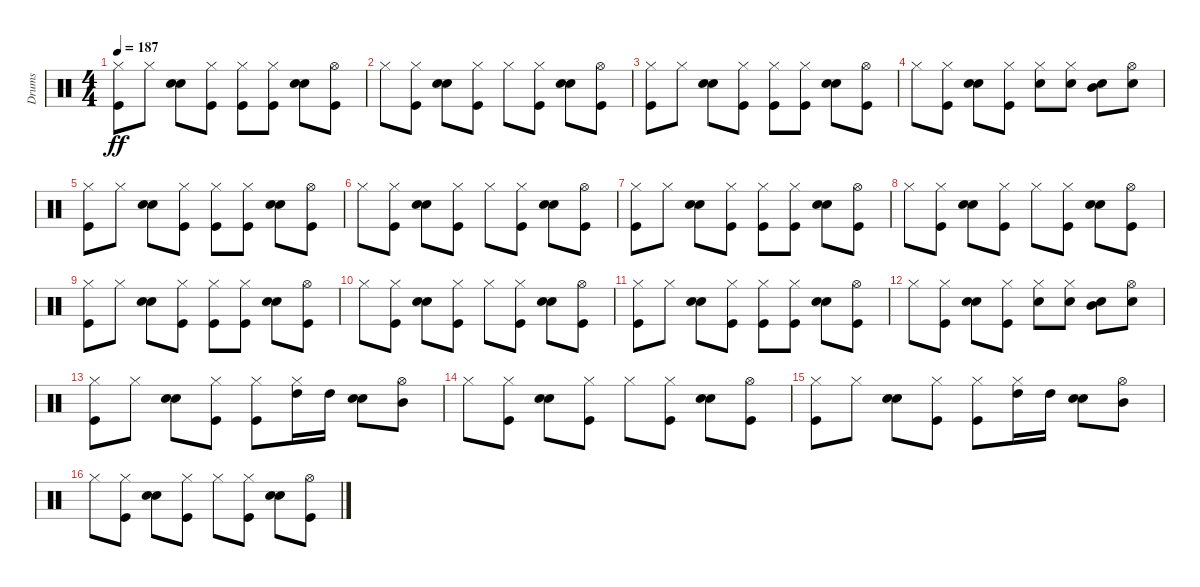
\track ("Drums" "Drums") {instrument percussion}
\staff {score}
\articulation defaults
\ts (4 4)
\tempo 187
\clef neutral
\ks c
("Kick (hit)" "Hi-Hat (closed)").8{dy ff} "Hi-Hat (closed)".8 ("Snare (hit) 2" "Electric Snare (hit)").8 ("Kick (hit)" "Hi-Hat (closed)").8 ("Kick (hit)" "Hi-Hat (closed)").8 ("Kick (hit)" "Hi-Hat (closed)").8 ("Snare (hit) 2" "Electric Snare (hit)").8 ("Kick (hit)" "Hi-Hat (open)").8 |
"Hi-Hat (closed)".8 ("Kick (hit)" "Hi-Hat (closed)").8 ("Snare (hit) 2" "Electric Snare (hit)").8 ("Kick (hit)" "Hi-Hat (closed)").8 "Hi-Hat (closed)".8 ("Kick (hit)" "Hi-Hat (closed)").8 ("Snare (hit) 2" "Electric Snare (hit)").8 ("Kick (hit)" "Hi-Hat (open)").8 |
("Kick (hit)" "Hi-Hat (closed)").8 "Hi-Hat (closed)".8 ("Snare (hit) 2" "Electric Snare (hit)").8 ("Kick (hit)" "Hi-Hat (closed)").8 ("Kick (hit)" "Hi-Hat (closed)").8 ("Kick (hit)" "Hi-Hat (closed)").8 ("Snare (hit) 2" "Electric Snare (hit)").8 ("Kick (hit)" "Hi-Hat (open)").8 |
"Hi-Hat (closed)".8 ("Kick (hit)" "Hi-Hat (closed)").8 ("Snare (hit) 2" "Electric Snare (hit)").8 ("Kick (hit)" "Hi-Hat (closed)").8 ("Electric Snare (hit)" "Hi-Hat (closed)").8 ("Electric Snare (hit)" "Hi-Hat (closed)").8 ("Snare (hit) 2" "Mid Tom (hit)").8 ("Electric Snare (hit)" "Hi-Hat (open)").8 |
("Kick (hit)" "Hi-Hat (closed)").8 "Hi-Hat (closed)".8 ("Snare (hit) 2" "Electric Snare (hit)").8 ("Kick (hit)" "Hi-Hat (closed)").8 ("Kick (hit)" "Hi-Hat (closed)").8 ("Kick (hit)" "Hi-Hat (closed)").8 ("Snare (hit) 2" "Electric Snare (hit)").8 ("Kick (hit)" "Hi-Hat (open)").8 |
"Hi-Hat (closed)".8 ("Kick (hit)" "Hi-Hat (closed)").8 ("Snare (hit) 2" "Electric Snare (hit)").8 ("Kick (hit)" "Hi-Hat (closed)").8 "Hi-Hat (closed)".8 ("Kick (hit)" "Hi-Hat (closed)").8 ("Snare (hit) 2" "Electric Snare (hit)").8 ("Kick (hit)" "Hi-Hat (open)").8 |
("Kick (hit)" "Hi-Hat (closed)").8 "Hi-Hat (closed)".8 ("Snare (hit) 2" "Electric Snare (hit)").8 ("Kick (hit)" "Hi-Hat (closed)").8 ("Kick (hit)" "Hi-Hat (closed)").8 ("Kick (hit)" "Hi-Hat (closed)").8 ("Snare (hit) 2" "Electric Snare (hit)").8 ("Kick (hit)" "Hi-Hat (open)").8 |
"Hi-Hat (closed)".8 ("Kick (hit)" "Hi-Hat (closed)").8 ("Snare (hit) 2" "Electric Snare (hit)").8 ("Kick (hit)" "Hi-Hat (closed)").8 "Hi-Hat (closed)".8 ("Kick (hit)" "Hi-Hat (closed)").8 ("Snare (hit) 2" "Electric Snare (hit)").8 ("Kick (hit)" "Hi-Hat (open)").8 |
("Kick (hit)" "Hi-Hat (closed)").8 "Hi-Hat (closed)".8 ("Snare (hit) 2" "Electric Snare (hit)").8 ("Kick (hit)" "Hi-Hat (closed)").8 ("Kick (hit)" "Hi-Hat (closed)").8 ("Kick (hit)" "Hi-Hat (closed)").8 ("Snare (hit) 2" "Electric Snare (hit)").8 ("Kick (hit)" "Hi-Hat (open)").8 |
"Hi-Hat (closed)".8 ("Kick (hit)" "Hi-Hat (closed)").8 ("Snare (hit) 2" "Electric Snare (hit)").8 ("Kick (hit)" "Hi-Hat (closed)").8 "Hi-Hat (closed)".8 ("Kick (hit)" "Hi-Hat (closed)").8 ("Snare (hit) 2" "Electric Snare (hit)").8 ("Kick (hit)" "Hi-Hat (open)").8 |
("Kick (hit)" "Hi-Hat (closed)").8 "Hi-Hat (closed)".8 ("Snare (hit) 2" "Electric Snare (hit)").8 ("Kick (hit)" "Hi-Hat (closed)").8 ("Kick (hit)" "Hi-Hat (closed)").8 ("Kick (hit)" "Hi-Hat (closed)").8 ("Snare (hit) 2" "Electric Snare (hit)").8 ("Kick (hit)" "Hi-Hat (open)").8 |
"Hi-Hat (closed)".8 ("Kick (hit)" "Hi-Hat (closed)").8 ("Snare (hit) 2" "Electric Snare (hit)").8 ("Kick (hit)" "Hi-Hat (closed)").8 ("Electric Snare (hit)" "Hi-Hat (closed)").8 ("Electric Snare (hit)" "Hi-Hat (closed)").8 ("Snare (hit) 2" "Mid Tom (hit)").8 ("Electric Snare (hit)" "Hi-Hat (open)").8 |
("Kick (hit)" "Hi-Hat (closed)").8 "Hi-Hat (closed)".8 ("Snare (hit) 2" "Electric Snare (hit)").8 ("Kick (hit)" "Hi-Hat (closed)").8 ("Kick (hit)" "Hi-Hat (closed)").8 ("Hi-Hat (closed)" "High Tom (hit)").16 "High Tom (hit)".16 ("Snare (hit) 2" "Electric Snare (hit)").8 ("Hi-Hat (open)" "Mid Tom (hit)").8 |
"Hi-Hat (closed)".8 ("Kick (hit)" "Hi-Hat (closed)").8 ("Snare (hit) 2" "Electric Snare (hit)").8 ("Kick (hit)" "Hi-Hat (closed)").8 "Hi-Hat (closed)".8 ("Kick (hit)" "Hi-Hat (closed)").8 ("Snare (hit) 2" "Electric Snare (hit)").8 ("Kick (hit)" "Hi-Hat (open)").8 |
("Kick (hit)" "Hi-Hat (closed)").8 "Hi-Hat (closed)".8 ("Snare (hit) 2" "Electric Snare (hit)").8 ("Kick (hit)" "Hi-Hat (closed)").8 ("Kick (hit)" "Hi-Hat (closed)").8 ("Hi-Hat (closed)" "High Tom (hit)").16 "High Tom (hit)".16 ("Snare (hit) 2" "Electric Snare (hit)").8 ("Hi-Hat (open)" "Mid Tom (hit)").8 |
"Hi-Hat (closed)".8 ("Kick (hit)" "Hi-Hat (closed)").8 ("Snare (hit) 2" "Electric Snare (hit)").8 ("Kick (hit)" "Hi-Hat (closed)").8 "Hi-Hat (closed)".8 ("Kick (hit)" "Hi-Hat (closed)").8 ("Snare (hit) 2" "Electric Snare (hit)").8 ("Kick (hit)" "Hi-Hat (open)").8
